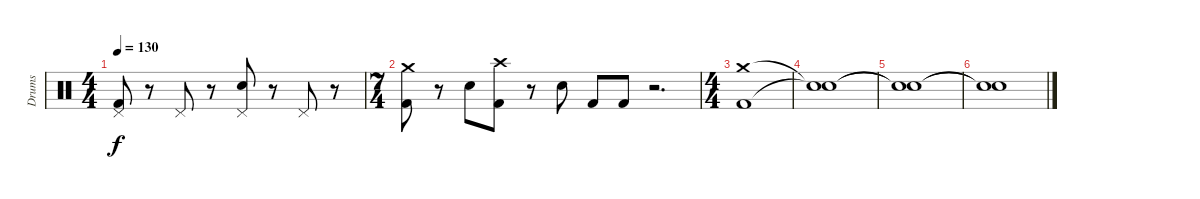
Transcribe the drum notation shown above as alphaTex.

\track ("Drums" "Drums") {instrument percussion}
\staff {score}
\articulation defaults
\ts (4 4)
\tempo 130
\clef neutral
\ks c
("Pedal Hi-Hat (hit)" "Kick (hit) 2").8{dy f} r.8 "Pedal Hi-Hat (hit)".8 r.8 ("Pedal Hi-Hat (hit)" "Electric Snare (hit)").8 r.8 "Pedal Hi-Hat (hit)".8 r.8 |
\ts (7 4)
("Crash medium (hit)" "Kick (hit) 2").8 r.8 "Electric Snare (hit)".8 ("Crash high (hit)" "Kick (hit) 2").8 r.8 "Electric Snare (hit)".8 "Kick (hit) 2".8 "Kick (hit) 2".8 r.2{d} |
\ts (4 4)
("Crash medium (hit)" "Kick (hit) 2").1 |
("Snare (hit)"{t} "Snare (hit)"{t}).1 |
("Snare (hit)"{t} "Snare (hit)"{t}).1 |
("Snare (hit)"{t} "Snare (hit)"{t}).1
